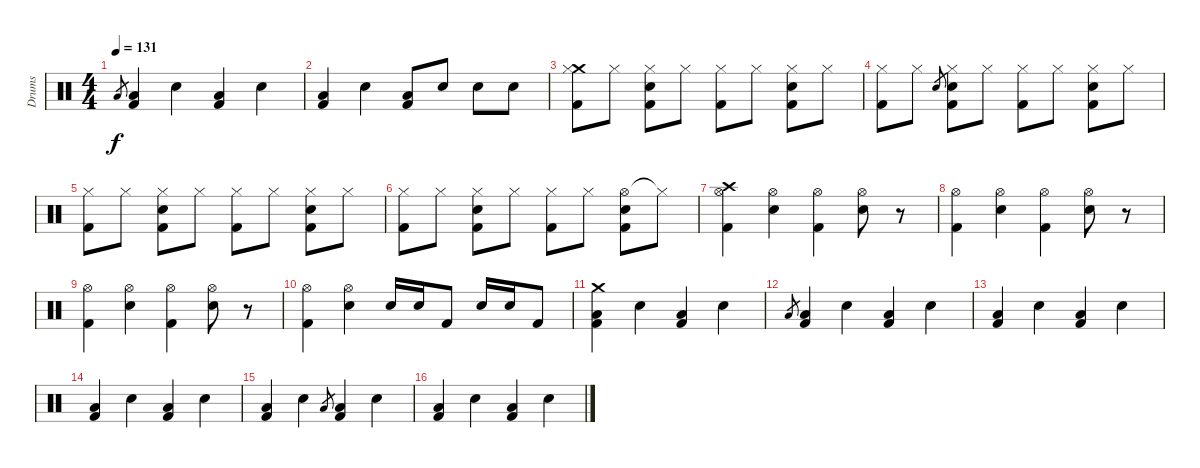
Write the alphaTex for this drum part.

\track ("Drums" "Drums") {instrument percussion}
\staff {score}
\articulation defaults
\ts (4 4)
\tempo 131
\clef neutral
\ks c "Low Tom (hit)".8{gr dy f}
("Low Tom (hit)" "Kick (hit) 2").4 "Electric Snare (hit)".4 ("Low Tom (hit)" "Kick (hit) 2").4 "Electric Snare (hit)".4 |
("Low Tom (hit)" "Kick (hit) 2").4 "Electric Snare (hit)".4 ("Low Tom (hit)" "Kick (hit) 2").8 "Electric Snare (hit)".8 "Electric Snare (hit)".8 "Electric Snare (hit)".8 |
("Crash medium (hit)" "Hi-Hat (closed)" "Kick (hit) 2").8 "Hi-Hat (closed)".8 ("Hi-Hat (closed)" "Electric Snare (hit)" "Kick (hit) 2").8 "Hi-Hat (closed)".8 ("Hi-Hat (closed)" "Kick (hit) 2").8 "Hi-Hat (closed)".8 ("Hi-Hat (closed)" "Electric Snare (hit)" "Kick (hit) 2").8 "Hi-Hat (closed)".8 |
("Hi-Hat (closed)" "Kick (hit) 2").8 "Hi-Hat (closed)".8 "Electric Snare (hit)".8{gr} ("Hi-Hat (closed)" "Electric Snare (hit)" "Kick (hit) 2").8 "Hi-Hat (closed)".8 ("Hi-Hat (closed)" "Kick (hit) 2").8 "Hi-Hat (closed)".8 ("Hi-Hat (closed)" "Electric Snare (hit)" "Kick (hit) 2").8 "Hi-Hat (closed)".8 |
("Hi-Hat (closed)" "Kick (hit) 2").8 "Hi-Hat (closed)".8 ("Hi-Hat (closed)" "Electric Snare (hit)" "Kick (hit) 2").8 "Hi-Hat (closed)".8 ("Hi-Hat (closed)" "Kick (hit) 2").8 "Hi-Hat (closed)".8 ("Hi-Hat (closed)" "Electric Snare (hit)" "Kick (hit) 2").8 "Hi-Hat (closed)".8 |
("Hi-Hat (closed)" "Kick (hit) 2").8 "Hi-Hat (closed)".8 ("Hi-Hat (closed)" "Electric Snare (hit)" "Kick (hit) 2").8 "Hi-Hat (closed)".8 ("Hi-Hat (closed)" "Kick (hit) 2").8 "Hi-Hat (closed)".8 ("Hi-Hat (open)" "Electric Snare (hit)" "Kick (hit) 2").8 "Hi-Hat (closed)"{t}.8 |
("Crash high (hit)" "Hi-Hat (open)" "Kick (hit) 2").4 ("Hi-Hat (open)" "Electric Snare (hit)").4 ("Hi-Hat (open)" "Kick (hit) 2").4 ("Hi-Hat (open)" "Electric Snare (hit)").8 r.8 |
("Hi-Hat (open)" "Kick (hit) 2").4 ("Hi-Hat (open)" "Electric Snare (hit)").4 ("Hi-Hat (open)" "Kick (hit) 2").4 ("Hi-Hat (open)" "Electric Snare (hit)").8 r.8 |
("Hi-Hat (open)" "Kick (hit) 2").4 ("Hi-Hat (open)" "Electric Snare (hit)").4 ("Hi-Hat (open)" "Kick (hit) 2").4 ("Hi-Hat (open)" "Electric Snare (hit)").8 r.8 |
("Hi-Hat (open)" "Kick (hit) 2").4 ("Hi-Hat (open)" "Electric Snare (hit)").4 "Electric Snare (hit)".16 "Electric Snare (hit)".16 "Kick (hit) 2".8 "Electric Snare (hit)".16 "Electric Snare (hit)".16 "Kick (hit) 2".8 |
("Crash medium (hit)" "Low Tom (hit)" "Kick (hit) 2").4 "Electric Snare (hit)".4 ("Low Tom (hit)" "Kick (hit) 2").4 "Electric Snare (hit)".4 |
"Low Tom (hit)".8{gr} ("Low Tom (hit)" "Kick (hit) 2").4 "Electric Snare (hit)".4 ("Low Tom (hit)" "Kick (hit) 2").4 "Electric Snare (hit)".4 |
("Low Tom (hit)" "Kick (hit) 2").4 "Electric Snare (hit)".4 ("Low Tom (hit)" "Kick (hit) 2").4 "Electric Snare (hit)".4 |
("Low Tom (hit)" "Kick (hit) 2").4 "Electric Snare (hit)".4 ("Low Tom (hit)" "Kick (hit) 2").4 "Electric Snare (hit)".4 |
("Low Tom (hit)" "Kick (hit) 2").4 "Electric Snare (hit)".4 "Low Tom (hit)".8{gr} ("Low Tom (hit)" "Kick (hit) 2").4 "Electric Snare (hit)".4 |
("Low Tom (hit)" "Kick (hit) 2").4 "Electric Snare (hit)".4 ("Low Tom (hit)" "Kick (hit) 2").4 "Electric Snare (hit)".4
